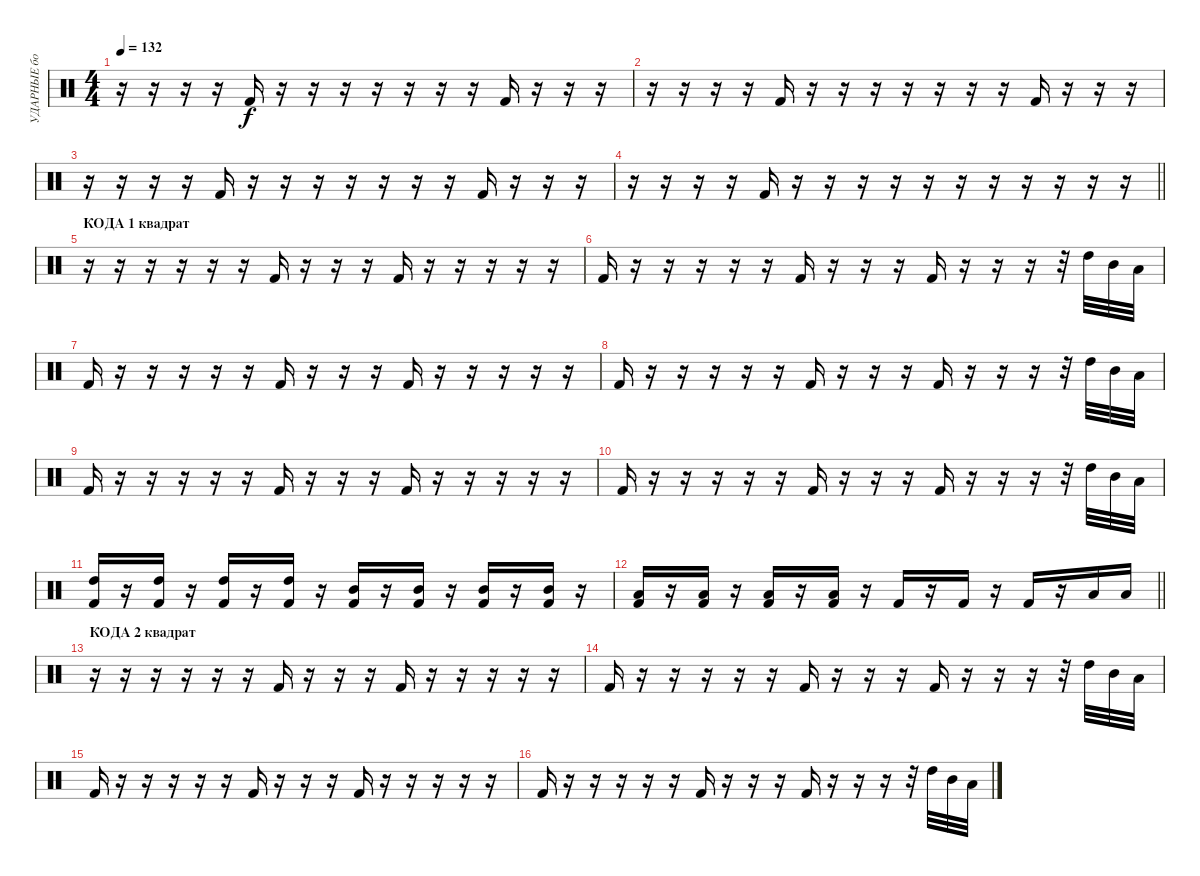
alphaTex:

\track ("УДАРНЫЕ бочка" "УДАРНЫЕ бо") {instrument percussion}
\staff {score}
\articulation defaults
\ts (4 4)
\tempo 132
\clef neutral
\ks c
r.16{dy f} r.16 r.16 r.16 "Kick (hit) 2".16 r.16 r.16 r.16 r.16 r.16 r.16 r.16 "Kick (hit) 2".16 r.16 r.16 r.16 |
r.16 r.16 r.16 r.16 "Kick (hit) 2".16 r.16 r.16 r.16 r.16 r.16 r.16 r.16 "Kick (hit) 2".16 r.16 r.16 r.16 |
r.16 r.16 r.16 r.16 "Kick (hit) 2".16 r.16 r.16 r.16 r.16 r.16 r.16 r.16 "Kick (hit) 2".16 r.16 r.16 r.16 |
\barLineRight lightlight
r.16 r.16 r.16 r.16 "Kick (hit) 2".16 r.16 r.16 r.16 r.16 r.16 r.16 r.16 r.16 r.16 r.16 r.16 |
\section ("" "КОДА 1 квадрат")
r.16 r.16 r.16 r.16 r.16 r.16 "Kick (hit) 2".16 r.16 r.16 r.16 "Kick (hit) 2".16 r.16 r.16 r.16 r.16 r.16 |
"Kick (hit) 2".16 r.16 r.16 r.16 r.16 r.16 "Kick (hit) 2".16 r.16 r.16 r.16 "Kick (hit) 2".16 r.16 r.16 r.16 r.32 "High Tom (hit)".32 "Mid Tom (hit)".32 "Low Tom (hit)".32 |
"Kick (hit) 2".16 r.16 r.16 r.16 r.16 r.16 "Kick (hit) 2".16 r.16 r.16 r.16 "Kick (hit) 2".16 r.16 r.16 r.16 r.16 r.16 |
"Kick (hit) 2".16 r.16 r.16 r.16 r.16 r.16 "Kick (hit) 2".16 r.16 r.16 r.16 "Kick (hit) 2".16 r.16 r.16 r.16 r.32 "High Tom (hit)".32 "Mid Tom (hit)".32 "Low Tom (hit)".32 |
"Kick (hit) 2".16 r.16 r.16 r.16 r.16 r.16 "Kick (hit) 2".16 r.16 r.16 r.16 "Kick (hit) 2".16 r.16 r.16 r.16 r.16 r.16 |
"Kick (hit) 2".16 r.16 r.16 r.16 r.16 r.16 "Kick (hit) 2".16 r.16 r.16 r.16 "Kick (hit) 2".16 r.16 r.16 r.16 r.32 "High Tom (hit)".32 "Mid Tom (hit)".32 "Low Tom (hit)".32 |
("Kick (hit) 2" "High Tom (hit)").16 r.16 ("Kick (hit) 2" "High Tom (hit)").16 r.16 ("Kick (hit) 2" "High Tom (hit)").16 r.16 ("Kick (hit) 2" "High Tom (hit)").16 r.16 ("Kick (hit) 2" "Mid Tom (hit)").16 r.16 ("Kick (hit) 2" "Mid Tom (hit)").16 r.16 ("Kick (hit) 2" "Mid Tom (hit)").16 r.16 ("Kick (hit) 2" "Mid Tom (hit)").16 r.16 |
\barLineRight lightlight
("Kick (hit) 2" "Low Tom (hit)").16 r.16 ("Kick (hit) 2" "Low Tom (hit)").16 r.16 ("Kick (hit) 2" "Low Tom (hit)").16 r.16 ("Kick (hit) 2" "Low Tom (hit)").16 r.16 "Kick (hit) 2".16 r.16 "Kick (hit) 2".16 r.16 "Kick (hit) 2".16 r.16 "Low Tom (hit)".16 "Low Tom (hit)".16 |
\section ("" "КОДА 2 квадрат")
r.16 r.16 r.16 r.16 r.16 r.16 "Kick (hit) 2".16 r.16 r.16 r.16 "Kick (hit) 2".16 r.16 r.16 r.16 r.16 r.16 |
"Kick (hit) 2".16 r.16 r.16 r.16 r.16 r.16 "Kick (hit) 2".16 r.16 r.16 r.16 "Kick (hit) 2".16 r.16 r.16 r.16 r.32 "High Tom (hit)".32 "Mid Tom (hit)".32 "Low Tom (hit)".32 |
"Kick (hit) 2".16 r.16 r.16 r.16 r.16 r.16 "Kick (hit) 2".16 r.16 r.16 r.16 "Kick (hit) 2".16 r.16 r.16 r.16 r.16 r.16 |
"Kick (hit) 2".16 r.16 r.16 r.16 r.16 r.16 "Kick (hit) 2".16 r.16 r.16 r.16 "Kick (hit) 2".16 r.16 r.16 r.16 r.32 "High Tom (hit)".32 "Mid Tom (hit)".32 "Low Tom (hit)".32
